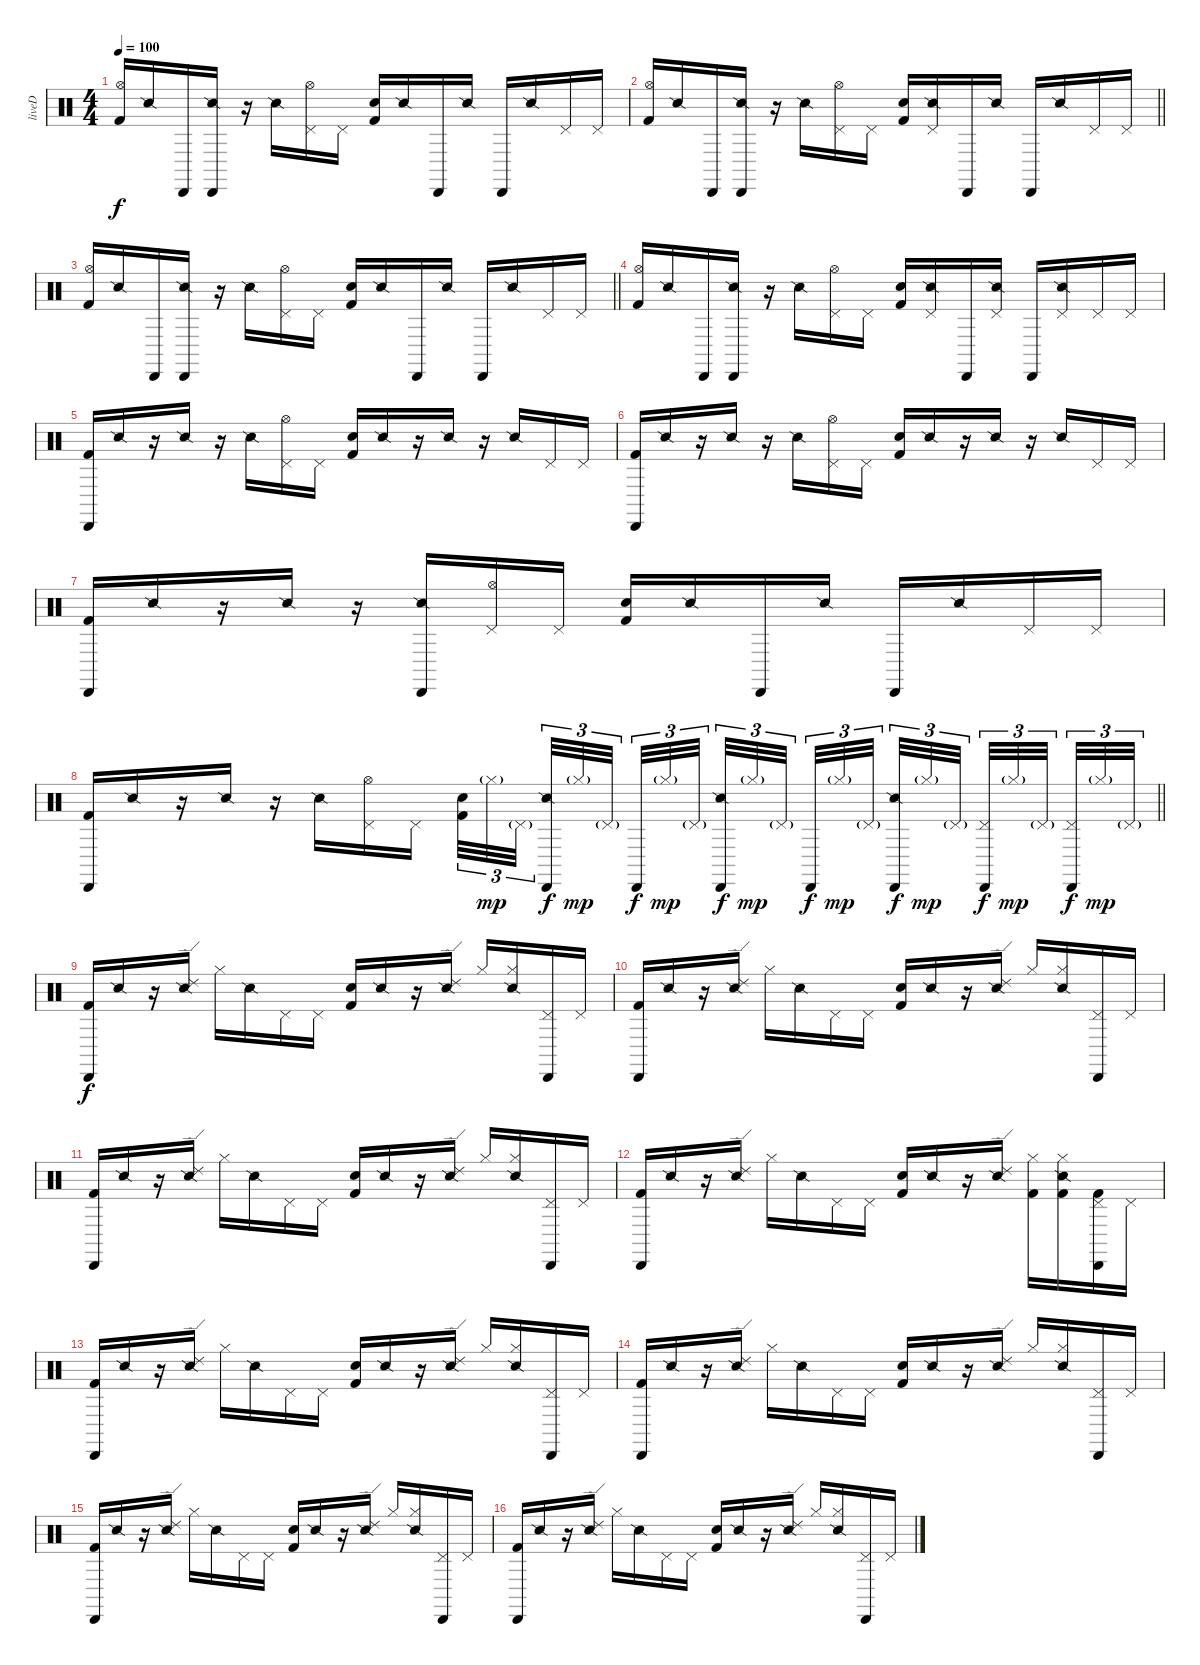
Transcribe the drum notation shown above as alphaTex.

\track ("liveD" "liveD") {instrument percussion}
\staff {score}
\articulation defaults
\ts (4 4)
\tempo 100
\clef neutral
\ks c
("Hi-Hat (open)" "Kick (hit) 2").16{dy f} "Snare (side stick) 2".16 "Cabasa (hit)".16 ("Snare (side stick) 2" "Cabasa (hit)").16 r.16 "Snare (side stick) 2".16 ("Pedal Hi-Hat (hit)" "Hi-Hat (open)").16 "Pedal Hi-Hat (hit)".16 ("Snare (hit) 2" "Kick (hit) 2").16 "Snare (side stick) 2".16 "Cabasa (hit)".16 "Snare (side stick) 2".16 "Cabasa (hit)".16 "Snare (side stick) 2".16 "Pedal Hi-Hat (hit)".16 "Pedal Hi-Hat (hit)".16 |
\barLineRight lightlight
("Hi-Hat (open)" "Kick (hit) 2").16 "Snare (side stick) 2".16 "Cabasa (hit)".16 ("Snare (side stick) 2" "Cabasa (hit)").16 r.16 "Snare (side stick) 2".16 ("Pedal Hi-Hat (hit)" "Hi-Hat (open)").16 "Pedal Hi-Hat (hit)".16 ("Snare (hit) 2" "Kick (hit) 2").16 ("Snare (side stick) 2" "Pedal Hi-Hat (hit)").16 "Cabasa (hit)".16 "Snare (side stick) 2".16 "Cabasa (hit)".16 "Snare (side stick) 2".16 "Pedal Hi-Hat (hit)".16 "Pedal Hi-Hat (hit)".16 |
\barLineRight lightlight
("Hi-Hat (open)" "Kick (hit) 2").16 "Snare (side stick) 2".16 "Cabasa (hit)".16 ("Snare (side stick) 2" "Cabasa (hit)").16 r.16 "Snare (side stick) 2".16 ("Pedal Hi-Hat (hit)" "Hi-Hat (open)").16 "Pedal Hi-Hat (hit)".16 ("Snare (hit) 2" "Kick (hit) 2").16 "Snare (side stick) 2".16 "Cabasa (hit)".16 "Snare (side stick) 2".16 "Cabasa (hit)".16 "Snare (side stick) 2".16 "Pedal Hi-Hat (hit)".16 "Pedal Hi-Hat (hit)".16 |
("Hi-Hat (open)" "Kick (hit) 2").16 "Snare (side stick) 2".16 "Cabasa (hit)".16 ("Snare (side stick) 2" "Cabasa (hit)").16 r.16 "Snare (side stick) 2".16 ("Pedal Hi-Hat (hit)" "Hi-Hat (open)").16 "Pedal Hi-Hat (hit)".16 ("Snare (hit) 2" "Kick (hit) 2").16 ("Snare (side stick) 2" "Pedal Hi-Hat (hit)").16 "Cabasa (hit)".16 ("Snare (side stick) 2" "Pedal Hi-Hat (hit)").16 "Cabasa (hit)".16 ("Snare (side stick) 2" "Pedal Hi-Hat (hit)").16 "Pedal Hi-Hat (hit)".16 "Pedal Hi-Hat (hit)".16 |
("Cabasa (hit)" "Kick (hit) 2").16 "Snare (side stick) 2".16 r.16 "Snare (side stick) 2".16 r.16 "Snare (side stick) 2".16 ("Pedal Hi-Hat (hit)" "Hi-Hat (open)").16 "Pedal Hi-Hat (hit)".16 ("Snare (hit) 2" "Kick (hit) 2").16 "Snare (side stick) 2".16 r.16 "Snare (side stick) 2".16 r.16 "Snare (side stick) 2".16 "Pedal Hi-Hat (hit)".16 "Pedal Hi-Hat (hit)".16 |
("Cabasa (hit)" "Kick (hit) 2").16 "Snare (side stick) 2".16 r.16 "Snare (side stick) 2".16 r.16 "Snare (side stick) 2".16 ("Pedal Hi-Hat (hit)" "Hi-Hat (open)").16 "Pedal Hi-Hat (hit)".16 ("Snare (hit) 2" "Kick (hit) 2").16 "Snare (side stick) 2".16 r.16 "Snare (side stick) 2".16 r.16 "Snare (side stick) 2".16 "Pedal Hi-Hat (hit)".16 "Pedal Hi-Hat (hit)".16 |
("Cabasa (hit)" "Kick (hit) 2").16 "Snare (side stick) 2".16 r.16 "Snare (side stick) 2".16 r.16 ("Snare (side stick) 2" "Cabasa (hit)").16 ("Pedal Hi-Hat (hit)" "Hi-Hat (open)").16 "Pedal Hi-Hat (hit)".16 ("Snare (hit) 2" "Kick (hit) 2").16 "Snare (side stick) 2".16 "Cabasa (hit)".16 "Snare (side stick) 2".16 "Cabasa (hit)".16 "Snare (side stick) 2".16 "Pedal Hi-Hat (hit)".16 "Pedal Hi-Hat (hit)".16 |
\barLineRight lightlight
("Cabasa (hit)" "Kick (hit) 2").16 "Snare (side stick) 2".16 r.16 "Snare (side stick) 2".16 r.16 "Snare (side stick) 2".16 ("Pedal Hi-Hat (hit)" "Hi-Hat (open)").16 "Pedal Hi-Hat (hit)".16 ("Snare (hit) 2" "Kick (hit) 2").32{tu (3 2)} "Hi-Hat (closed)"{g}.32{tu (3 2) dy mp} "Pedal Hi-Hat (hit)"{g}.32{tu (3 2) beam splitsecondary} ("Snare (side stick) 2" "Cabasa (hit)").32{tu (3 2) dy f} "Hi-Hat (closed)"{g}.32{tu (3 2) dy mp} "Pedal Hi-Hat (hit)"{g}.32{tu (3 2) beam splitsecondary} "Cabasa (hit)".32{tu (3 2) dy f} "Hi-Hat (closed)"{g}.32{tu (3 2) dy mp} "Pedal Hi-Hat (hit)"{g}.32{tu (3 2) beam splitsecondary} ("Snare (side stick) 2" "Cabasa (hit)").32{tu (3 2) dy f} "Hi-Hat (closed)"{g}.32{tu (3 2) dy mp} "Pedal Hi-Hat (hit)"{g}.32{tu (3 2)} "Cabasa (hit)".32{tu (3 2) dy f} "Hi-Hat (closed)"{g}.32{tu (3 2) dy mp} "Pedal Hi-Hat (hit)"{g}.32{tu (3 2) beam splitsecondary} ("Snare (side stick) 2" "Cabasa (hit)").32{tu (3 2) dy f} "Hi-Hat (closed)"{g}.32{tu (3 2) dy mp} "Pedal Hi-Hat (hit)"{g}.32{tu (3 2) beam splitsecondary} ("Pedal Hi-Hat (hit)" "Cabasa (hit)").32{tu (3 2) dy f} "Hi-Hat (closed)"{g}.32{tu (3 2) dy mp} "Pedal Hi-Hat (hit)"{g}.32{tu (3 2) beam splitsecondary} ("Pedal Hi-Hat (hit)" "Cabasa (hit)").32{tu (3 2) dy f} "Hi-Hat (closed)"{g}.32{tu (3 2) dy mp} "Pedal Hi-Hat (hit)"{g}.32{tu (3 2)} |
\section ("" "")
("Cabasa (hit)" "Kick (hit) 2").16{dy f} "Snare (side stick) 2".16 r.16 ("Snare (side stick) 2" "Ride (edge) 2").16 "Hi-Hat (closed)".16 "Snare (side stick) 2".16 "Pedal Hi-Hat (hit)".16 "Pedal Hi-Hat (hit)".16 ("Snare (hit) 2" "Kick (hit) 2").16 "Snare (side stick) 2".16 r.16 ("Snare (side stick) 2" "Ride (edge) 2").16 "Hi-Hat (closed)".16 ("Snare (side stick) 2" "Hi-Hat (closed)").16 ("Pedal Hi-Hat (hit)" "Cabasa (hit)").16 "Pedal Hi-Hat (hit)".16 |
("Cabasa (hit)" "Kick (hit) 2").16 "Snare (side stick) 2".16 r.16 ("Snare (side stick) 2" "Ride (edge) 2").16 "Hi-Hat (closed)".16 "Snare (side stick) 2".16 "Pedal Hi-Hat (hit)".16 "Pedal Hi-Hat (hit)".16 ("Snare (hit) 2" "Kick (hit) 2").16 "Snare (side stick) 2".16 r.16 ("Snare (side stick) 2" "Ride (edge) 2").16 "Hi-Hat (closed)".16 ("Snare (side stick) 2" "Hi-Hat (closed)").16 ("Pedal Hi-Hat (hit)" "Cabasa (hit)").16 "Pedal Hi-Hat (hit)".16 |
("Cabasa (hit)" "Kick (hit) 2").16 "Snare (side stick) 2".16 r.16 ("Snare (side stick) 2" "Ride (edge) 2").16 "Hi-Hat (closed)".16 "Snare (side stick) 2".16 "Pedal Hi-Hat (hit)".16 "Pedal Hi-Hat (hit)".16 ("Snare (hit) 2" "Kick (hit) 2").16 "Snare (side stick) 2".16 r.16 ("Snare (side stick) 2" "Ride (edge) 2").16 "Hi-Hat (closed)".16 ("Snare (side stick) 2" "Hi-Hat (closed)").16 ("Pedal Hi-Hat (hit)" "Cabasa (hit)").16 "Pedal Hi-Hat (hit)".16 |
("Cabasa (hit)" "Kick (hit) 2").16 "Snare (side stick) 2".16 r.16 ("Snare (side stick) 2" "Ride (edge) 2").16 "Hi-Hat (closed)".16 "Snare (side stick) 2".16 "Pedal Hi-Hat (hit)".16 "Pedal Hi-Hat (hit)".16 ("Snare (hit) 2" "Kick (hit) 2").16 "Snare (side stick) 2".16 r.16 ("Snare (side stick) 2" "Ride (edge) 2").16 ("Hi-Hat (closed)" "Kick (hit) 2").16 ("Snare (side stick) 2" "Hi-Hat (closed)" "Kick (hit) 2").16 ("Pedal Hi-Hat (hit)" "Cabasa (hit)" "Kick (hit) 2").16 "Pedal Hi-Hat (hit)".16 |
("Cabasa (hit)" "Kick (hit) 2").16 "Snare (side stick) 2".16 r.16 ("Snare (side stick) 2" "Ride (edge) 2").16 "Hi-Hat (closed)".16 "Snare (side stick) 2".16 "Pedal Hi-Hat (hit)".16 "Pedal Hi-Hat (hit)".16 ("Snare (hit) 2" "Kick (hit) 2").16 "Snare (side stick) 2".16 r.16 ("Snare (side stick) 2" "Ride (edge) 2").16 "Hi-Hat (closed)".16 ("Snare (side stick) 2" "Hi-Hat (closed)").16 ("Pedal Hi-Hat (hit)" "Cabasa (hit)").16 "Pedal Hi-Hat (hit)".16 |
("Cabasa (hit)" "Kick (hit) 2").16 "Snare (side stick) 2".16 r.16 ("Snare (side stick) 2" "Ride (edge) 2").16 "Hi-Hat (closed)".16 "Snare (side stick) 2".16 "Pedal Hi-Hat (hit)".16 "Pedal Hi-Hat (hit)".16 ("Snare (hit) 2" "Kick (hit) 2").16 "Snare (side stick) 2".16 r.16 ("Snare (side stick) 2" "Ride (edge) 2").16 "Hi-Hat (closed)".16 ("Snare (side stick) 2" "Hi-Hat (closed)").16 ("Pedal Hi-Hat (hit)" "Cabasa (hit)").16 "Pedal Hi-Hat (hit)".16 |
("Cabasa (hit)" "Kick (hit) 2").16 "Snare (side stick) 2".16 r.16 ("Snare (side stick) 2" "Ride (edge) 2").16 "Hi-Hat (closed)".16 "Snare (side stick) 2".16 "Pedal Hi-Hat (hit)".16 "Pedal Hi-Hat (hit)".16 ("Snare (hit) 2" "Kick (hit) 2").16 "Snare (side stick) 2".16 r.16 ("Snare (side stick) 2" "Ride (edge) 2").16 "Hi-Hat (closed)".16 ("Snare (side stick) 2" "Hi-Hat (closed)").16 ("Pedal Hi-Hat (hit)" "Cabasa (hit)").16 "Pedal Hi-Hat (hit)".16 |
("Cabasa (hit)" "Kick (hit) 2").16 "Snare (side stick) 2".16 r.16 ("Snare (side stick) 2" "Ride (edge) 2").16 "Hi-Hat (closed)".16 "Snare (side stick) 2".16 "Pedal Hi-Hat (hit)".16 "Pedal Hi-Hat (hit)".16 ("Snare (hit) 2" "Kick (hit) 2").16 "Snare (side stick) 2".16 r.16 ("Snare (side stick) 2" "Ride (edge) 2").16 "Hi-Hat (closed)".16 ("Snare (side stick) 2" "Hi-Hat (closed)").16 ("Pedal Hi-Hat (hit)" "Cabasa (hit)").16 "Pedal Hi-Hat (hit)".16
